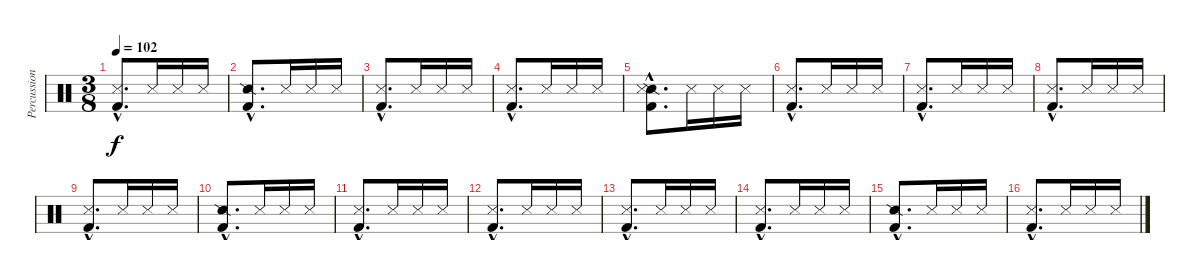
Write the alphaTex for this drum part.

\track ("Percussions" "Percussion") {instrument percussion}
\staff {score}
\articulation defaults
\ts (3 8)
\tempo 102
\clef neutral
\ks c
("Snare (side stick) 3"{hac} "Kick (hit) 2"{hac}).8{d dy f} "Snare (side stick) 3".16 "Snare (side stick) 3".16 "Snare (side stick) 3".16 |
("Snare (side stick) 2"{hac} "Kick (hit) 2"{hac}).8{d} "Snare (side stick) 3".16 "Snare (side stick) 3".16 "Snare (side stick) 3".16 |
("Snare (side stick) 3"{hac} "Kick (hit) 2"{hac}).8{d} "Snare (side stick) 3".16 "Snare (side stick) 3".16 "Snare (side stick) 3".16 |
("Snare (side stick) 3"{hac} "Kick (hit) 2"{hac}).8{d} "Snare (side stick) 3".16 "Snare (side stick) 3".16 "Snare (side stick) 3".16 |
("Snare (side stick) 2"{hac} "Snare (side stick) 3"{hac} "Kick (hit) 2"{hac}).8{d} "Snare (side stick) 3".16 "Snare (side stick) 3".16 "Snare (side stick) 3".16 |
("Snare (side stick) 3"{hac} "Kick (hit) 2"{hac}).8{d} "Snare (side stick) 3".16 "Snare (side stick) 3".16 "Snare (side stick) 3".16 |
("Snare (side stick) 3"{hac} "Kick (hit) 2"{hac}).8{d} "Snare (side stick) 3".16 "Snare (side stick) 3".16 "Snare (side stick) 3".16 |
("Snare (side stick) 3"{hac} "Kick (hit) 2"{hac}).8{d} "Snare (side stick) 3".16 "Snare (side stick) 3".16 "Snare (side stick) 3".16 |
("Snare (side stick) 3"{hac} "Kick (hit) 2"{hac}).8{d} "Snare (side stick) 3".16 "Snare (side stick) 3".16 "Snare (side stick) 3".16 |
("Snare (side stick) 2"{hac} "Kick (hit) 2"{hac}).8{d} "Snare (side stick) 3".16 "Snare (side stick) 3".16 "Snare (side stick) 3".16 |
("Snare (side stick) 3"{hac} "Kick (hit) 2"{hac}).8{d} "Snare (side stick) 3".16 "Snare (side stick) 3".16 "Snare (side stick) 3".16 |
("Snare (side stick) 3"{hac} "Kick (hit) 2"{hac}).8{d} "Snare (side stick) 3".16 "Snare (side stick) 3".16 "Snare (side stick) 3".16 |
("Snare (side stick) 3"{hac} "Kick (hit) 2"{hac}).8{d} "Snare (side stick) 3".16 "Snare (side stick) 3".16 "Snare (side stick) 3".16 |
("Snare (side stick) 3"{hac} "Kick (hit) 2"{hac}).8{d} "Snare (side stick) 3".16 "Snare (side stick) 3".16 "Snare (side stick) 3".16 |
("Snare (side stick) 2"{hac} "Kick (hit) 2"{hac}).8{d} "Snare (side stick) 3".16 "Snare (side stick) 3".16 "Snare (side stick) 3".16 |
("Snare (side stick) 3"{hac} "Kick (hit) 2"{hac}).8{d} "Snare (side stick) 3".16 "Snare (side stick) 3".16 "Snare (side stick) 3".16
